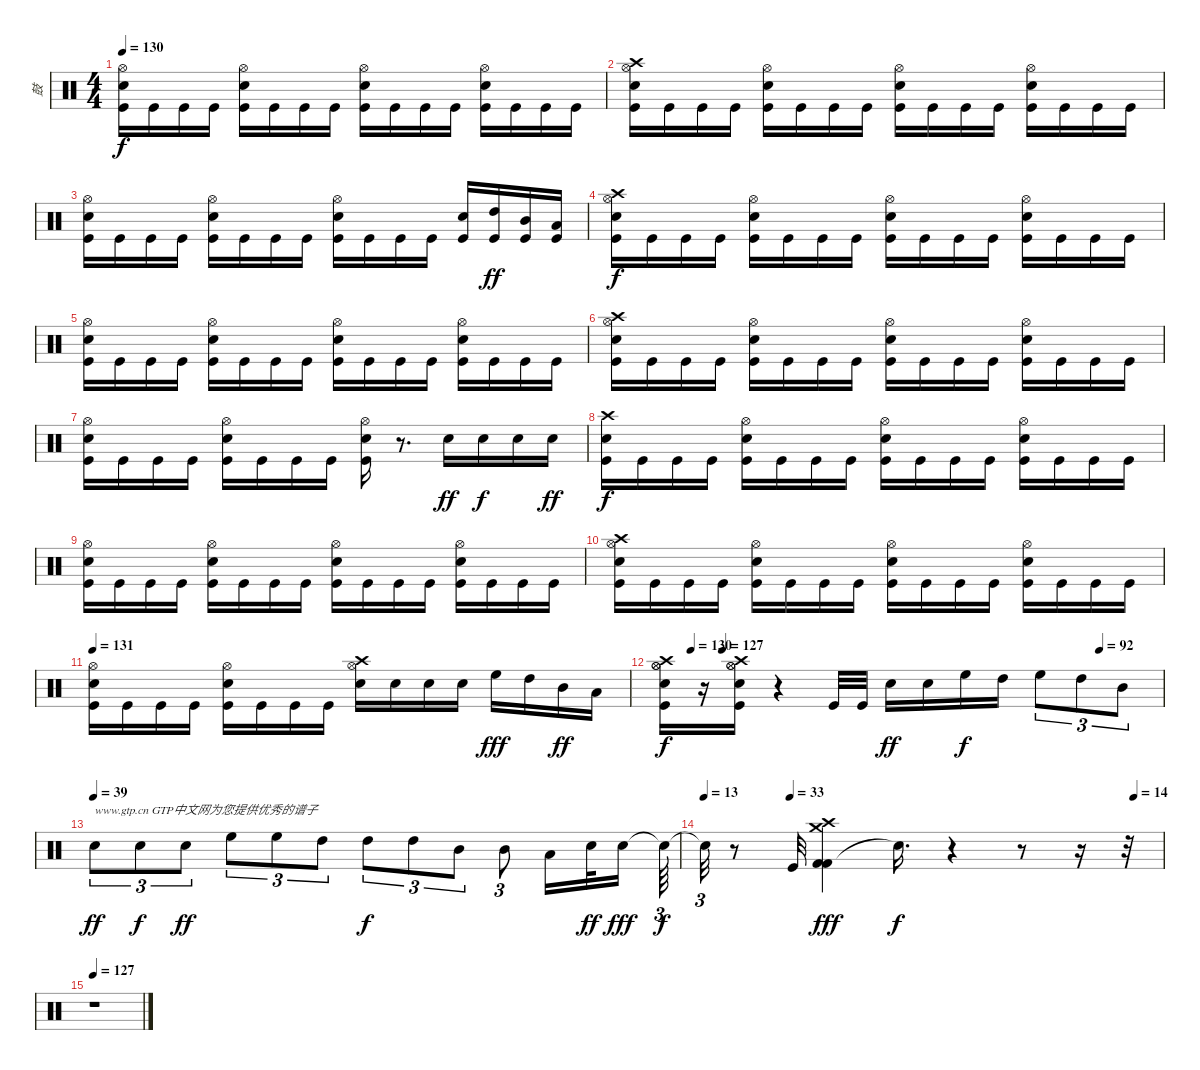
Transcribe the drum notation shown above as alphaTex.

\track ("鼓" "鼓") {instrument percussion}
\staff {score}
\articulation defaults
\ts (4 4)
\tempo 130
\clef neutral
\ks c
("Hi-Hat (open)" "Snare (hit) 2" "Kick (hit)").16{dy f} "Kick (hit)".16 "Kick (hit)".16 "Kick (hit)".16 ("Hi-Hat (open)" "Snare (hit) 2" "Kick (hit)").16 "Kick (hit)".16 "Kick (hit)".16 "Kick (hit)".16 ("Hi-Hat (open)" "Snare (hit) 2" "Kick (hit)").16 "Kick (hit)".16 "Kick (hit)".16 "Kick (hit)".16 ("Hi-Hat (open)" "Snare (hit) 2" "Kick (hit)").16 "Kick (hit)".16 "Kick (hit)".16 "Kick (hit)".16 |
("Crash high (hit)" "Hi-Hat (open)" "Snare (hit) 2" "Kick (hit)").16 "Kick (hit)".16 "Kick (hit)".16 "Kick (hit)".16 ("Hi-Hat (open)" "Snare (hit) 2" "Kick (hit)").16 "Kick (hit)".16 "Kick (hit)".16 "Kick (hit)".16 ("Hi-Hat (open)" "Snare (hit) 2" "Kick (hit)").16 "Kick (hit)".16 "Kick (hit)".16 "Kick (hit)".16 ("Hi-Hat (open)" "Snare (hit) 2" "Kick (hit)").16 "Kick (hit)".16 "Kick (hit)".16 "Kick (hit)".16 |
("Hi-Hat (open)" "Snare (hit) 2" "Kick (hit)").16 "Kick (hit)".16 "Kick (hit)".16 "Kick (hit)".16 ("Hi-Hat (open)" "Snare (hit) 2" "Kick (hit)").16 "Kick (hit)".16 "Kick (hit)".16 "Kick (hit)".16 ("Hi-Hat (open)" "Snare (hit) 2" "Kick (hit)").16 "Kick (hit)".16 "Kick (hit)".16 "Kick (hit)".16 ("Snare (hit) 2" "Kick (hit)").16 ("High Tom (hit)" "Kick (hit)").16{dy ff} ("Mid Tom (hit)" "Kick (hit)").16 ("Low Tom (hit)" "Kick (hit)").16 |
("Crash high (hit)" "Hi-Hat (open)" "Snare (hit) 2" "Kick (hit)").16{dy f} "Kick (hit)".16 "Kick (hit)".16 "Kick (hit)".16 ("Hi-Hat (open)" "Snare (hit) 2" "Kick (hit)").16 "Kick (hit)".16 "Kick (hit)".16 "Kick (hit)".16 ("Hi-Hat (open)" "Snare (hit) 2" "Kick (hit)").16 "Kick (hit)".16 "Kick (hit)".16 "Kick (hit)".16 ("Hi-Hat (open)" "Snare (hit) 2" "Kick (hit)").16 "Kick (hit)".16 "Kick (hit)".16 "Kick (hit)".16 |
("Hi-Hat (open)" "Snare (hit) 2" "Kick (hit)").16 "Kick (hit)".16 "Kick (hit)".16 "Kick (hit)".16 ("Hi-Hat (open)" "Snare (hit) 2" "Kick (hit)").16 "Kick (hit)".16 "Kick (hit)".16 "Kick (hit)".16 ("Hi-Hat (open)" "Snare (hit) 2" "Kick (hit)").16 "Kick (hit)".16 "Kick (hit)".16 "Kick (hit)".16 ("Hi-Hat (open)" "Snare (hit) 2" "Kick (hit)").16 "Kick (hit)".16 "Kick (hit)".16 "Kick (hit)".16 |
("Crash high (hit)" "Hi-Hat (open)" "Snare (hit) 2" "Kick (hit)").16 "Kick (hit)".16 "Kick (hit)".16 "Kick (hit)".16 ("Hi-Hat (open)" "Snare (hit) 2" "Kick (hit)").16 "Kick (hit)".16 "Kick (hit)".16 "Kick (hit)".16 ("Hi-Hat (open)" "Snare (hit) 2" "Kick (hit)").16 "Kick (hit)".16 "Kick (hit)".16 "Kick (hit)".16 ("Hi-Hat (open)" "Snare (hit) 2" "Kick (hit)").16 "Kick (hit)".16 "Kick (hit)".16 "Kick (hit)".16 |
("Hi-Hat (open)" "Snare (hit) 2" "Kick (hit)").16 "Kick (hit)".16 "Kick (hit)".16 "Kick (hit)".16 ("Hi-Hat (open)" "Snare (hit) 2" "Kick (hit)").16 "Kick (hit)".16 "Kick (hit)".16 "Kick (hit)".16 ("Hi-Hat (open)" "Snare (hit) 2" "Kick (hit)").16 r.8{d} "Snare (hit) 2".16{dy ff} "Snare (hit) 2".16{dy f} "Snare (hit) 2".16 "Snare (hit) 2".16{dy ff} |
("Crash high (hit)" "Snare (hit) 2" "Kick (hit)").16{dy f} "Kick (hit)".16 "Kick (hit)".16 "Kick (hit)".16 ("Hi-Hat (open)" "Snare (hit) 2" "Kick (hit)").16 "Kick (hit)".16 "Kick (hit)".16 "Kick (hit)".16 ("Hi-Hat (open)" "Snare (hit) 2" "Kick (hit)").16 "Kick (hit)".16 "Kick (hit)".16 "Kick (hit)".16 ("Hi-Hat (open)" "Snare (hit) 2" "Kick (hit)").16 "Kick (hit)".16 "Kick (hit)".16 "Kick (hit)".16 |
("Hi-Hat (open)" "Snare (hit) 2" "Kick (hit)").16 "Kick (hit)".16 "Kick (hit)".16 "Kick (hit)".16 ("Hi-Hat (open)" "Snare (hit) 2" "Kick (hit)").16 "Kick (hit)".16 "Kick (hit)".16 "Kick (hit)".16 ("Hi-Hat (open)" "Snare (hit) 2" "Kick (hit)").16 "Kick (hit)".16 "Kick (hit)".16 "Kick (hit)".16 ("Hi-Hat (open)" "Snare (hit) 2" "Kick (hit)").16 "Kick (hit)".16 "Kick (hit)".16 "Kick (hit)".16 |
("Crash high (hit)" "Hi-Hat (open)" "Snare (hit) 2" "Kick (hit)").16 "Kick (hit)".16 "Kick (hit)".16 "Kick (hit)".16 ("Hi-Hat (open)" "Snare (hit) 2" "Kick (hit)").16 "Kick (hit)".16 "Kick (hit)".16 "Kick (hit)".16 ("Hi-Hat (open)" "Snare (hit) 2" "Kick (hit)").16 "Kick (hit)".16 "Kick (hit)".16 "Kick (hit)".16 ("Hi-Hat (open)" "Snare (hit) 2" "Kick (hit)").16 "Kick (hit)".16 "Kick (hit)".16 "Kick (hit)".16 |
\tempo 131
("Hi-Hat (open)" "Snare (hit) 2" "Kick (hit)").16 "Kick (hit)".16 "Kick (hit)".16 "Kick (hit)".16 ("Hi-Hat (open)" "Snare (hit) 2" "Kick (hit)").16 "Kick (hit)".16 "Kick (hit)".16 "Kick (hit)".16 ("Crash high (hit)" "Hi-Hat (open)" "Snare (hit) 2").16 "Snare (hit) 2".16 "Snare (hit) 2".16 "Snare (hit) 2".16 "High Floor Tom (hit)".16{dy fff} "High Tom (hit)".16 "Mid Tom (hit)".16{dy ff} "Low Tom (hit)".16 |
\tempo (130 0.0625)
\tempo (127 0.125)
\tempo (92 0.875)
("Crash high (hit)" "Hi-Hat (open)" "Hi-Hat (open)" "Snare (hit) 2" "Kick (hit)").16{dy f} r.16 ("Crash high (hit)" "Hi-Hat (open)" "Hi-Hat (open)" "Snare (hit) 2" "Kick (hit)").16 r.4 "Kick (hit)".32 "Kick (hit)".32 "Snare (hit) 2".16{dy ff} "Snare (hit) 2".16 "High Floor Tom (hit)".16{dy f} "High Tom (hit)".16 "High Floor Tom (hit)".8{tu (3 2)} "High Tom (hit)".8{tu (3 2)} "Mid Tom (hit)".8{tu (3 2)} |
\tempo (39)
"Snare (hit) 2".8{tu (3 2) txt "www.gtp.cn GTP中文网为您提供优秀的谱子" dy ff} "Snare (hit) 2".8{tu (3 2) dy f} "Snare (hit) 2".8{tu (3 2) dy ff} "High Floor Tom (hit)".8{tu (3 2)} "High Floor Tom (hit)".8{tu (3 2)} "High Tom (hit)".8{tu (3 2)} "High Tom (hit)".8{tu (3 2) dy f} "High Tom (hit)".8{tu (3 2)} "Mid Tom (hit)".8{tu (3 2)} "Mid Tom (hit)".8{tu (3 2)} "Low Tom (hit)".16 "Snare (hit) 2".32{dy ff} "Snare (hit) 2".16{dy fff beam splitsecondary} "Snare (hit)"{t}.64{tu (3 2) dy f} |
\tempo 13
\tempo (33 0.1875)
\tempo (14 0.9375)
"Snare (hit)"{t}.32{tu (3 2)} r.8 "Kick (hit)".32 ("Kick (hit) 2" "Crash medium (hit)" "Crash high (hit)" "Kick (hit) 2").4{dy fff} "Snare (hit)"{t}.16{d dy f} r.4 r.8 r.16 r.32 |
\tempo 127
r.1
